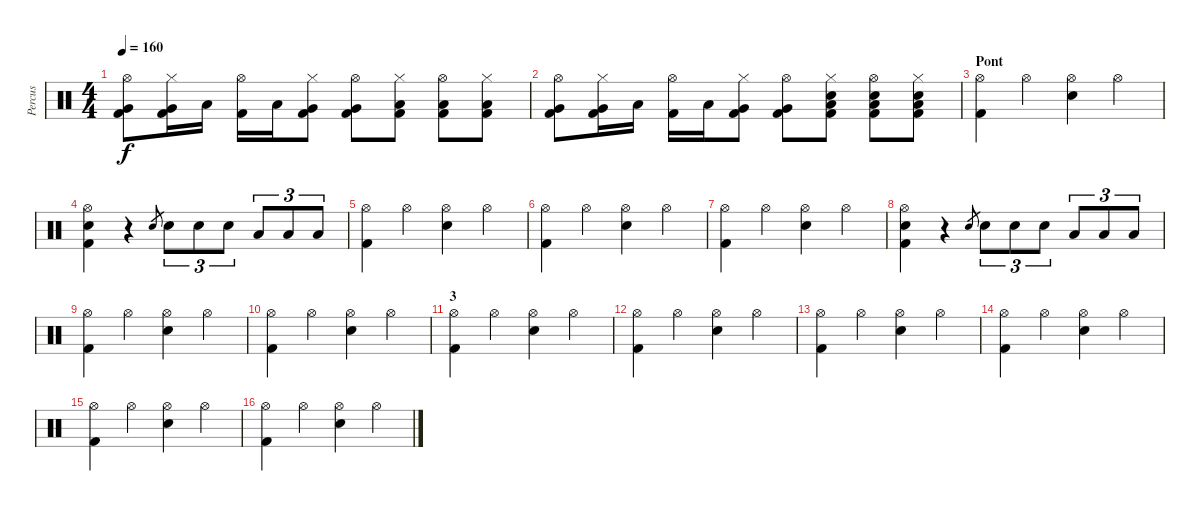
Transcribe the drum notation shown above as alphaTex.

\track ("Percus" "Percus") {instrument percussion}
\staff {score}
\articulation defaults
\ts (4 4)
\tempo 160
\clef neutral
\ks c
("Hi-Hat (open)" "Very Low Tom (hit)" "Kick (hit) 2").8{dy f} ("Hi-Hat (closed)" "Very Low Tom (hit)" "Kick (hit) 2").16 "Low Tom (hit)".16 ("Hi-Hat (open)" "Kick (hit) 2").16 "Low Tom (hit)".16 ("Hi-Hat (closed)" "Very Low Tom (hit)" "Kick (hit) 2").8 ("Hi-Hat (open)" "Very Low Tom (hit)" "Kick (hit) 2").8 ("Hi-Hat (closed)" "Low Floor Tom (hit)" "Kick (hit) 2").8 ("Hi-Hat (open)" "Low Tom (hit)" "Kick (hit) 2").8 ("Hi-Hat (closed)" "Low Tom (hit)" "Kick (hit) 2").8 |
("Hi-Hat (open)" "Very Low Tom (hit)" "Kick (hit) 2").8 ("Hi-Hat (closed)" "Very Low Tom (hit)" "Kick (hit) 2").16 "Low Tom (hit)".16 ("Hi-Hat (open)" "Kick (hit) 2").16 "Low Tom (hit)".16 ("Hi-Hat (closed)" "Very Low Tom (hit)" "Kick (hit) 2").8 ("Hi-Hat (open)" "Very Low Tom (hit)" "Kick (hit) 2").8 ("Hi-Hat (closed)" "Low Floor Tom (hit)" "Snare (hit) 2" "Kick (hit) 2").8 ("Hi-Hat (open)" "Low Tom (hit)" "Snare (hit) 2" "Kick (hit) 2").8 ("Hi-Hat (closed)" "Low Tom (hit)" "Snare (hit) 2" "Kick (hit) 2").8 |
\section ("" "Pont")
("Hi-Hat (open)" "Kick (hit) 2").4 "Hi-Hat (open)".4 ("Hi-Hat (open)" "Electric Snare (hit)").4 "Hi-Hat (open)".4 |
("Hi-Hat (open)" "Electric Snare (hit)" "Kick (hit) 2").4 r.4 "Electric Snare (hit)".8{gr} "Electric Snare (hit)".8{tu (3 2)} "Electric Snare (hit)".8{tu (3 2)} "Electric Snare (hit)".8{tu (3 2)} "Low Tom (hit)".8{tu (3 2)} "Low Tom (hit)".8{tu (3 2)} "Low Tom (hit)".8{tu (3 2)} |
("Hi-Hat (open)" "Kick (hit) 2").4 "Hi-Hat (open)".4 ("Hi-Hat (open)" "Electric Snare (hit)").4 "Hi-Hat (open)".4 |
("Hi-Hat (open)" "Kick (hit) 2").4 "Hi-Hat (open)".4 ("Hi-Hat (open)" "Electric Snare (hit)").4 "Hi-Hat (open)".4 |
("Hi-Hat (open)" "Kick (hit) 2").4 "Hi-Hat (open)".4 ("Hi-Hat (open)" "Electric Snare (hit)").4 "Hi-Hat (open)".4 |
("Hi-Hat (open)" "Electric Snare (hit)" "Kick (hit) 2").4 r.4 "Electric Snare (hit)".8{gr} "Electric Snare (hit)".8{tu (3 2)} "Electric Snare (hit)".8{tu (3 2)} "Electric Snare (hit)".8{tu (3 2)} "Low Tom (hit)".8{tu (3 2)} "Low Tom (hit)".8{tu (3 2)} "Low Tom (hit)".8{tu (3 2)} |
("Hi-Hat (open)" "Kick (hit) 2").4 "Hi-Hat (open)".4 ("Hi-Hat (open)" "Electric Snare (hit)").4 "Hi-Hat (open)".4 |
("Hi-Hat (open)" "Kick (hit) 2").4 "Hi-Hat (open)".4 ("Hi-Hat (open)" "Electric Snare (hit)").4 "Hi-Hat (open)".4 |
\section ("" "3")
("Hi-Hat (open)" "Kick (hit) 2").4 "Hi-Hat (open)".4 ("Hi-Hat (open)" "Electric Snare (hit)").4 "Hi-Hat (open)".4 |
("Hi-Hat (open)" "Kick (hit) 2").4 "Hi-Hat (open)".4 ("Hi-Hat (open)" "Electric Snare (hit)").4 "Hi-Hat (open)".4 |
("Hi-Hat (open)" "Kick (hit) 2").4 "Hi-Hat (open)".4 ("Hi-Hat (open)" "Electric Snare (hit)").4 "Hi-Hat (open)".4 |
("Hi-Hat (open)" "Kick (hit) 2").4 "Hi-Hat (open)".4 ("Hi-Hat (open)" "Electric Snare (hit)").4 "Hi-Hat (open)".4 |
("Hi-Hat (open)" "Kick (hit) 2").4 "Hi-Hat (open)".4 ("Hi-Hat (open)" "Electric Snare (hit)").4 "Hi-Hat (open)".4 |
("Hi-Hat (open)" "Kick (hit) 2").4 "Hi-Hat (open)".4 ("Hi-Hat (open)" "Electric Snare (hit)").4 "Hi-Hat (open)".4
